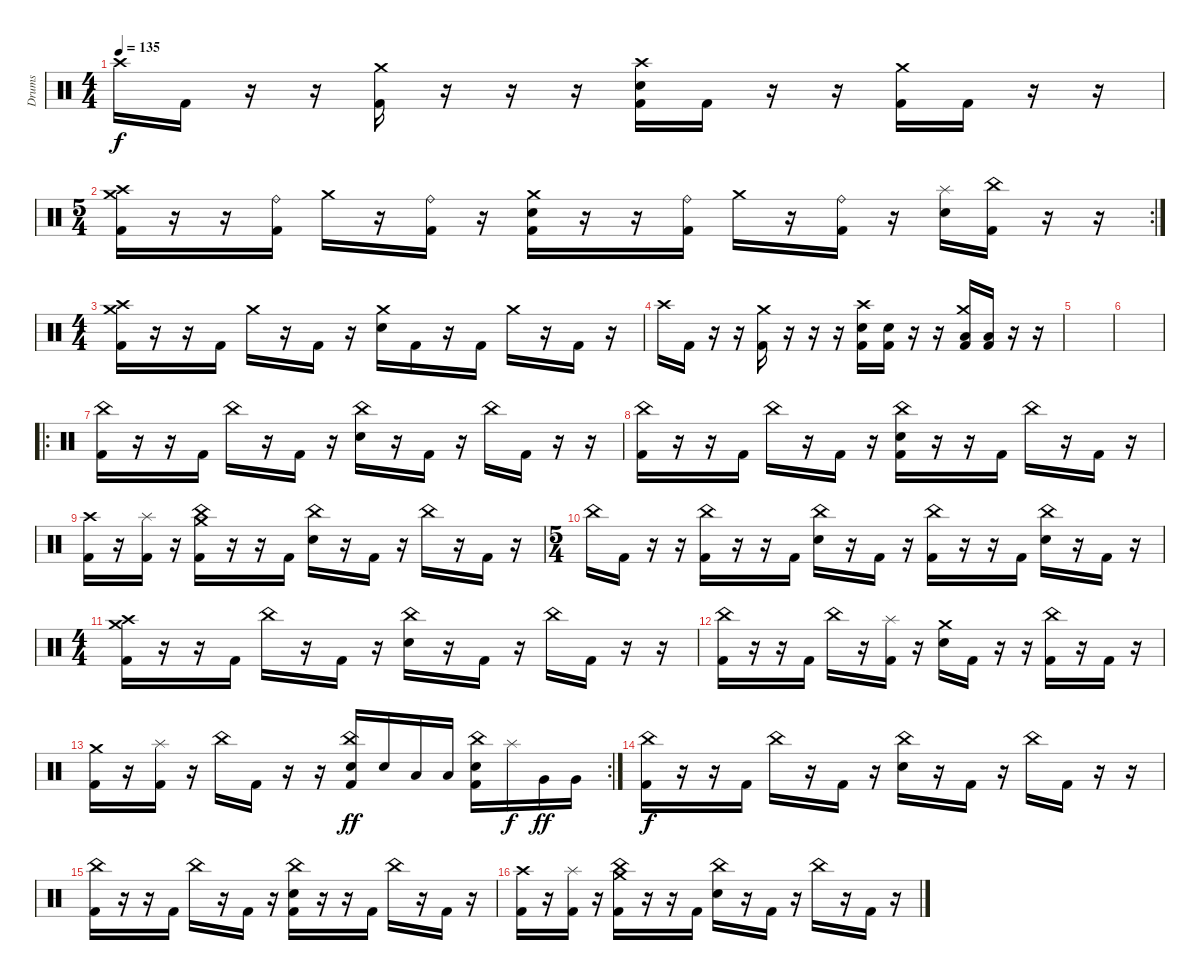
\track ("Drums" "Drums") {instrument percussion}
\staff {score}
\articulation defaults
\ts (4 4)
\tempo 135
\clef neutral
\ks c "Crash high (hit)".16{dy f} "Kick (hit) 2".16
r.16 r.16 ("Crash medium (hit)" "Kick (hit) 2").16 r.16 r.16 r.16 ("Crash high (hit)" "Snare (hit) 2" "Kick (hit) 2").16 "Kick (hit) 2".16 r.16 r.16 ("Crash medium (hit)" "Kick (hit) 2").16 "Kick (hit) 2".16 r.16 r.16 |
\rc 2
\ts (5 4)
("Crash medium (hit)" "Crash high (hit)" "Kick (hit) 2").16 r.16 r.16 ("Ride (bell)" "Kick (hit) 2").16 "Crash medium (hit)".16 r.16 ("Ride (bell)" "Kick (hit) 2").16 r.16 ("Crash medium (hit)" "Snare (hit) 2" "Kick (hit) 2").16 r.16 r.16 ("Ride (bell)" "Kick (hit) 2").16 "Crash medium (hit)".16 r.16 ("Ride (bell)" "Kick (hit) 2").16 r.16 ("Splash (hit)" "Snare (hit) 2").16 ("China (hit)" "Kick (hit) 2").16 r.16 r.16 |
\ts (4 4)
("Crash medium (hit)" "Crash high (hit)" "Kick (hit) 2").16 r.16 r.16 "Kick (hit) 2".16 "Crash medium (hit)".16 r.16 "Kick (hit) 2".16 r.16 ("Crash medium (hit)" "Snare (hit) 2").16 "Kick (hit) 2".16 r.16 "Kick (hit) 2".16 "Crash medium (hit)".16 r.16 "Kick (hit) 2".16 r.16 |
"Crash high (hit)".16 "Kick (hit) 2".16 r.16 r.16 ("Crash medium (hit)" "Kick (hit) 2").16 r.16 r.16 r.16 ("Crash high (hit)" "Snare (hit) 2" "Kick (hit) 2").16 ("Snare (hit) 2" "Kick (hit) 2").16 r.16 r.16 ("Crash medium (hit)" "Low Tom (hit)" "Kick (hit) 2").16 ("Low Tom (hit)" "Kick (hit) 2").16 r.16 r.16 |
|
|
\ro
("China (hit)" "Kick (hit) 2").16 r.16 r.16 "Kick (hit) 2".16 "China (hit)".16 r.16 "Kick (hit) 2".16 r.16 ("China (hit)" "Snare (hit) 2").16 r.16 "Kick (hit) 2".16 r.16 "China (hit)".16 "Kick (hit) 2".16 r.16 r.16 |
("China (hit)" "Kick (hit) 2").16 r.16 r.16 "Kick (hit) 2".16 "China (hit)".16 r.16 "Kick (hit) 2".16 r.16 ("China (hit)" "Snare (hit) 2" "Kick (hit) 2").16 r.16 r.16 "Kick (hit) 2".16 "China (hit)".16 r.16 "Kick (hit) 2".16 r.16 |
("Crash high (hit)" "Kick (hit) 2").16 r.16 ("Splash (hit)" "Kick (hit) 2").16 r.16 ("China (hit)" "Crash medium (hit)" "Kick (hit) 2").16 r.16 r.16 "Kick (hit) 2".16 ("China (hit)" "Snare (hit) 2").16 r.16 "Kick (hit) 2".16 r.16 "China (hit)".16 r.16 "Kick (hit) 2".16 r.16 |
\ts (5 4)
"China (hit)".16 "Kick (hit) 2".16 r.16 r.16 ("China (hit)" "Kick (hit) 2").16 r.16 r.16 "Kick (hit) 2".16 ("China (hit)" "Snare (hit) 2").16 r.16 "Kick (hit) 2".16 r.16 ("China (hit)" "Kick (hit) 2").16 r.16 r.16 "Kick (hit) 2".16 ("China (hit)" "Snare (hit) 2").16 r.16 "Kick (hit) 2".16 r.16 |
\ts (4 4)
("Crash high (hit)" "Crash medium (hit)" "Kick (hit) 2").16 r.16 r.16 "Kick (hit) 2".16 "China (hit)".16 r.16 "Kick (hit) 2".16 r.16 ("China (hit)" "Snare (hit) 2").16 r.16 "Kick (hit) 2".16 r.16 "China (hit)".16 "Kick (hit) 2".16 r.16 r.16 |
("China (hit)" "Kick (hit) 2").16 r.16 r.16 "Kick (hit) 2".16 "China (hit)".16 r.16 ("Splash (hit)" "Kick (hit) 2").16 r.16 ("Crash medium (hit)" "Snare (hit) 2").16 "Kick (hit) 2".16 r.16 r.16 ("China (hit)" "Kick (hit) 2").16 r.16 "Kick (hit) 2".16 r.16 |
\rc 2
("Crash medium (hit)" "Kick (hit) 2").16 r.16 ("Splash (hit)" "Kick (hit) 2").16 r.16 "China (hit)".16 "Kick (hit) 2".16 r.16 r.16 ("China (hit)" "Electric Snare (hit)" "Kick (hit) 2").16{dy ff} "Electric Snare (hit)".16 "Low Tom (hit)".16 "Low Tom (hit)".16 ("China (hit)" "Electric Snare (hit)" "Kick (hit) 2").16 "Splash (hit)".16{dy f} "Very Low Tom (hit)".16{dy ff} "Very Low Tom (hit)".16 |
("China (hit)" "Kick (hit) 2").16{dy f} r.16 r.16 "Kick (hit) 2".16 "China (hit)".16 r.16 "Kick (hit) 2".16 r.16 ("China (hit)" "Snare (hit) 2").16 r.16 "Kick (hit) 2".16 r.16 "China (hit)".16 "Kick (hit) 2".16 r.16 r.16 |
("China (hit)" "Kick (hit) 2").16 r.16 r.16 "Kick (hit) 2".16 "China (hit)".16 r.16 "Kick (hit) 2".16 r.16 ("China (hit)" "Snare (hit) 2" "Kick (hit) 2").16 r.16 r.16 "Kick (hit) 2".16 "China (hit)".16 r.16 "Kick (hit) 2".16 r.16 |
("Crash high (hit)" "Kick (hit) 2").16 r.16 ("Splash (hit)" "Kick (hit) 2").16 r.16 ("China (hit)" "Crash medium (hit)" "Kick (hit) 2").16 r.16 r.16 "Kick (hit) 2".16 ("China (hit)" "Snare (hit) 2").16 r.16 "Kick (hit) 2".16 r.16 "China (hit)".16 r.16 "Kick (hit) 2".16 r.16
